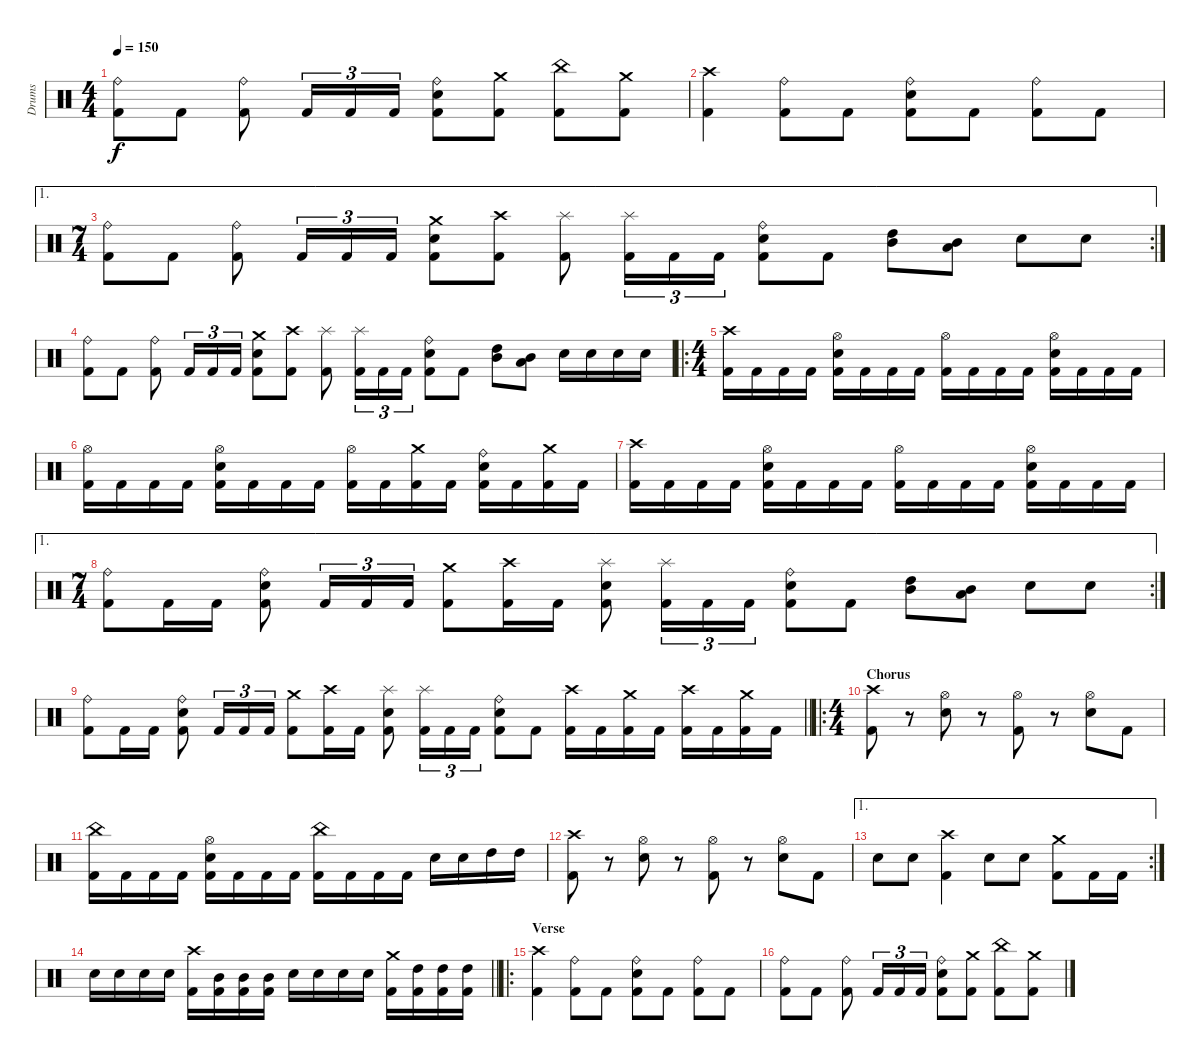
\track ("Drums" "Drums") {instrument percussion}
\staff {score}
\articulation defaults
\ts (4 4)
\tempo 150
\clef neutral
\ks c
("Ride (bell)" "Kick (hit) 2").8{dy f} "Kick (hit) 2".8 ("Ride (bell)" "Kick (hit) 2").8 "Kick (hit) 2".16{tu (3 2)} "Kick (hit) 2".16{tu (3 2)} "Kick (hit) 2".16{tu (3 2)} ("Ride (bell)" "Snare (hit) 2" "Kick (hit) 2").8 ("Crash medium (hit)" "Kick (hit) 2").8 ("China (hit)" "Kick (hit) 2").8 ("Crash medium (hit)" "Kick (hit) 2").8 |
("Crash high (hit)" "Kick (hit) 2").4 ("Ride (bell)" "Kick (hit) 2").8 "Kick (hit) 2".8 ("Ride (bell)" "Snare (hit) 2" "Kick (hit) 2").8 "Kick (hit) 2".8 ("Ride (bell)" "Kick (hit) 2").8 "Kick (hit) 2".8 |
\ae 1
\rc 2
\ts (7 4)
("Ride (bell)" "Kick (hit) 2").8 "Kick (hit) 2".8 ("Ride (bell)" "Kick (hit) 2").8 "Kick (hit) 2".16{tu (3 2)} "Kick (hit) 2".16{tu (3 2)} "Kick (hit) 2".16{tu (3 2)} ("Crash medium (hit)" "Snare (hit) 2" "Kick (hit) 2").8 ("Crash high (hit)" "Kick (hit) 2").8 ("Splash (hit)" "Kick (hit) 2").8 ("Splash (hit)" "Kick (hit) 2").16{tu (3 2)} "Kick (hit) 2".16{tu (3 2)} "Kick (hit) 2".16{tu (3 2)} ("Ride (bell)" "Snare (hit) 2" "Kick (hit) 2").8 "Kick (hit) 2".8 ("Mid Tom (hit)" "High Tom (hit)").8 ("Low Tom (hit)" "Mid Tom (hit)").8 "Snare (hit) 2".8 "Snare (hit) 2".8 |
("Ride (bell)" "Kick (hit) 2").8 "Kick (hit) 2".8 ("Ride (bell)" "Kick (hit) 2").8 "Kick (hit) 2".16{tu (3 2)} "Kick (hit) 2".16{tu (3 2)} "Kick (hit) 2".16{tu (3 2)} ("Crash medium (hit)" "Snare (hit) 2" "Kick (hit) 2").8 ("Crash high (hit)" "Kick (hit) 2").8 ("Splash (hit)" "Kick (hit) 2").8 ("Splash (hit)" "Kick (hit) 2").16{tu (3 2)} "Kick (hit) 2".16{tu (3 2)} "Kick (hit) 2".16{tu (3 2)} ("Ride (bell)" "Snare (hit) 2" "Kick (hit) 2").8 "Kick (hit) 2".8 ("Mid Tom (hit)" "High Tom (hit)").8 ("Low Tom (hit)" "Mid Tom (hit)").8 "Snare (hit) 2".16 "Snare (hit) 2".16 "Snare (hit) 2".16 "Snare (hit) 2".16 |
\ro
\ts (4 4)
("Crash high (hit)" "Kick (hit) 2").16 "Kick (hit) 2".16 "Kick (hit) 2".16 "Kick (hit) 2".16 ("Hi-Hat (open)" "Snare (hit) 2" "Kick (hit) 2").16 "Kick (hit) 2".16 "Kick (hit) 2".16 "Kick (hit) 2".16 ("Hi-Hat (open)" "Kick (hit) 2").16 "Kick (hit) 2".16 "Kick (hit) 2".16 "Kick (hit) 2".16 ("Hi-Hat (open)" "Snare (hit) 2" "Kick (hit) 2").16 "Kick (hit) 2".16 "Kick (hit) 2".16 "Kick (hit) 2".16 |
("Hi-Hat (open)" "Kick (hit) 2").16 "Kick (hit) 2".16 "Kick (hit) 2".16 "Kick (hit) 2".16 ("Hi-Hat (open)" "Snare (hit) 2" "Kick (hit) 2").16 "Kick (hit) 2".16 "Kick (hit) 2".16 "Kick (hit) 2".16 ("Hi-Hat (open)" "Kick (hit) 2").16 "Kick (hit) 2".16 ("Crash medium (hit)" "Kick (hit) 2").16 "Kick (hit) 2".16 ("Ride (bell)" "Snare (hit) 2" "Kick (hit) 2").16 "Kick (hit) 2".16 ("Crash medium (hit)" "Kick (hit) 2").16 "Kick (hit) 2".16 |
("Crash high (hit)" "Kick (hit) 2").16 "Kick (hit) 2".16 "Kick (hit) 2".16 "Kick (hit) 2".16 ("Hi-Hat (open)" "Snare (hit) 2" "Kick (hit) 2").16 "Kick (hit) 2".16 "Kick (hit) 2".16 "Kick (hit) 2".16 ("Hi-Hat (open)" "Kick (hit) 2").16 "Kick (hit) 2".16 "Kick (hit) 2".16 "Kick (hit) 2".16 ("Hi-Hat (open)" "Snare (hit) 2" "Kick (hit) 2").16 "Kick (hit) 2".16 "Kick (hit) 2".16 "Kick (hit) 2".16 |
\ae 1
\rc 2
\ts (7 4)
("Ride (bell)" "Kick (hit) 2").8 "Kick (hit) 2".16 "Kick (hit) 2".16 ("Ride (bell)" "Snare (hit) 2" "Kick (hit) 2").8 "Kick (hit) 2".16{tu (3 2)} "Kick (hit) 2".16{tu (3 2)} "Kick (hit) 2".16{tu (3 2)} ("Crash medium (hit)" "Kick (hit) 2").8 ("Crash high (hit)" "Kick (hit) 2").16 "Kick (hit) 2".16 ("Splash (hit)" "Snare (hit) 2" "Kick (hit) 2").8 ("Splash (hit)" "Kick (hit) 2").16{tu (3 2)} "Kick (hit) 2".16{tu (3 2)} "Kick (hit) 2".16{tu (3 2)} ("Ride (bell)" "Snare (hit) 2" "Kick (hit) 2").8 "Kick (hit) 2".8 ("Mid Tom (hit)" "High Tom (hit)").8 ("Low Tom (hit)" "Mid Tom (hit)").8 "Snare (hit) 2".8 "Snare (hit) 2".8 |
\barLineRight lightlight
("Ride (bell)" "Kick (hit) 2").8 "Kick (hit) 2".16 "Kick (hit) 2".16 ("Ride (bell)" "Snare (hit) 2" "Kick (hit) 2").8 "Kick (hit) 2".16{tu (3 2)} "Kick (hit) 2".16{tu (3 2)} "Kick (hit) 2".16{tu (3 2)} ("Crash medium (hit)" "Kick (hit) 2").8 ("Crash high (hit)" "Kick (hit) 2").16 "Kick (hit) 2".16 ("Splash (hit)" "Snare (hit) 2" "Kick (hit) 2").8 ("Splash (hit)" "Kick (hit) 2").16{tu (3 2)} "Kick (hit) 2".16{tu (3 2)} "Kick (hit) 2".16{tu (3 2)} ("Ride (bell)" "Snare (hit) 2" "Kick (hit) 2").8 "Kick (hit) 2".8 ("Crash high (hit)" "Kick (hit) 2").16 "Kick (hit) 2".16 ("Crash medium (hit)" "Kick (hit) 2").16 "Kick (hit) 2".16 ("Crash high (hit)" "Kick (hit) 2").16 "Kick (hit) 2".16 ("Crash medium (hit)" "Kick (hit) 2").16 "Kick (hit) 2".16 |
\ro
\ts (4 4)
\section ("" "Chorus")
("Crash high (hit)" "Kick (hit) 2").8 r.8 ("Hi-Hat (open)" "Snare (hit) 2").8 r.8 ("Hi-Hat (open)" "Kick (hit) 2").8 r.8 ("Hi-Hat (open)" "Snare (hit) 2").8 "Kick (hit) 2".8 |
("China (hit)" "Kick (hit) 2").16 "Kick (hit) 2".16 "Kick (hit) 2".16 "Kick (hit) 2".16 ("Hi-Hat (open)" "Snare (hit) 2" "Kick (hit) 2").16 "Kick (hit) 2".16 "Kick (hit) 2".16 "Kick (hit) 2".16 ("China (hit)" "Kick (hit) 2").16 "Kick (hit) 2".16 "Kick (hit) 2".16 "Kick (hit) 2".16 "Snare (hit) 2".16 "Snare (hit) 2".16 "High Tom (hit)".16 "High Tom (hit)".16 |
("Crash high (hit)" "Kick (hit) 2").8 r.8 ("Hi-Hat (open)" "Snare (hit) 2").8 r.8 ("Hi-Hat (open)" "Kick (hit) 2").8 r.8 ("Hi-Hat (open)" "Snare (hit) 2").8 "Kick (hit) 2".8 |
\ae 1
\rc 2 "Snare (hit) 2".8 "Snare (hit) 2".8
("Crash high (hit)" "Kick (hit) 2").4 "Snare (hit) 2".8 "Snare (hit) 2".8 ("Crash medium (hit)" "Kick (hit) 2").8 "Kick (hit) 2".16 "Kick (hit) 2".16 |
\barLineRight lightlight "Snare (hit) 2".16 "Snare (hit) 2".16 "Snare (hit) 2".16 "Snare (hit) 2".16
("Crash high (hit)" "Kick (hit) 2").16 ("Mid Tom (hit)" "Kick (hit) 2").16 ("Mid Tom (hit)" "Kick (hit) 2").16 ("Mid Tom (hit)" "Kick (hit) 2").16 "Snare (hit) 2".16 "Snare (hit) 2".16 "Snare (hit) 2".16 "Snare (hit) 2".16 ("Crash medium (hit)" "Kick (hit) 2").16 ("High Tom (hit)" "Kick (hit) 2").16 ("High Tom (hit)" "Kick (hit) 2").16 ("High Tom (hit)" "Kick (hit) 2").16 |
\ro
\section ("" "Verse")
("Crash high (hit)" "Kick (hit) 2").4 ("Ride (bell)" "Kick (hit) 2").8 "Kick (hit) 2".8 ("Ride (bell)" "Snare (hit) 2" "Kick (hit) 2").8 "Kick (hit) 2".8 ("Ride (bell)" "Kick (hit) 2").8 "Kick (hit) 2".8 |
("Ride (bell)" "Kick (hit) 2").8 "Kick (hit) 2".8 ("Ride (bell)" "Kick (hit) 2").8 "Kick (hit) 2".16{tu (3 2)} "Kick (hit) 2".16{tu (3 2)} "Kick (hit) 2".16{tu (3 2)} ("Ride (bell)" "Snare (hit) 2" "Kick (hit) 2").8 ("Crash medium (hit)" "Kick (hit) 2").8 ("China (hit)" "Kick (hit) 2").8 ("Crash medium (hit)" "Kick (hit) 2").8
